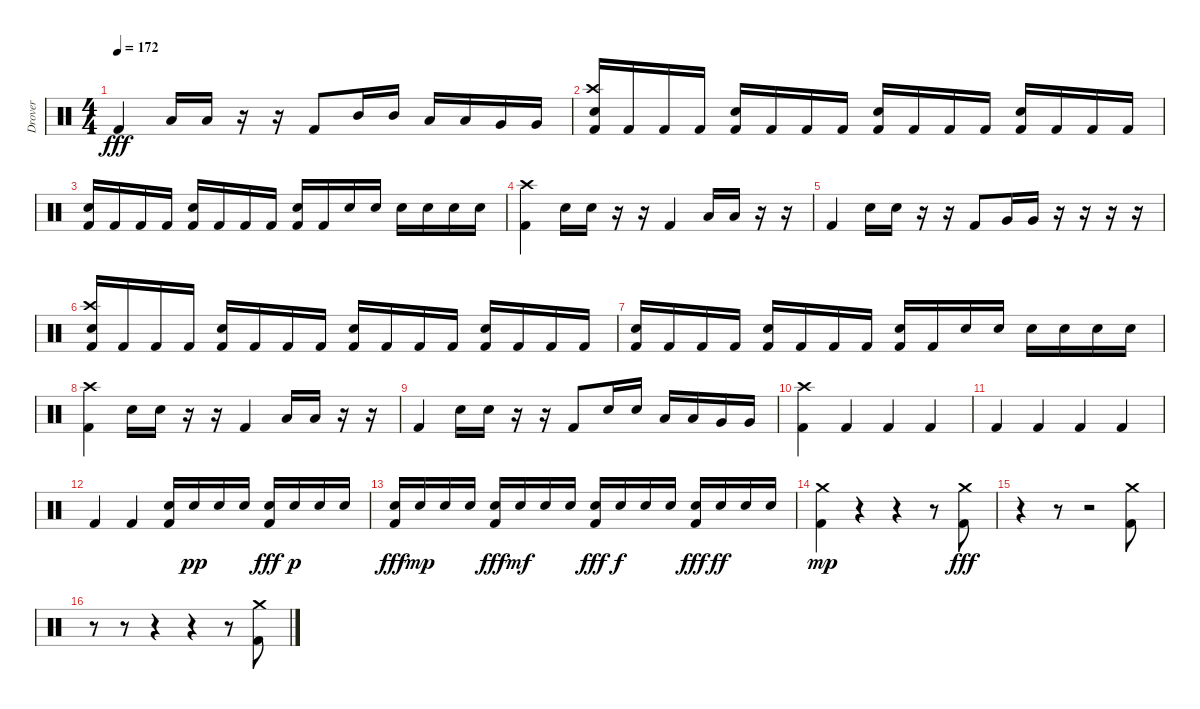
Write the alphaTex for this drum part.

\track ("Drover" "Drover") {instrument percussion}
\staff {score}
\articulation defaults
\ts (4 4)
\tempo 172
\clef neutral
\ks c "Kick (hit) 2".4{dy fff} "Low Tom (hit)".16 "Low Tom (hit)".16
r.16 r.16 "Kick (hit) 2".8 "Mid Tom (hit)".16 "Mid Tom (hit)".16 "Low Tom (hit)".16 "Low Tom (hit)".16 "Very Low Tom (hit)".16 "Very Low Tom (hit)".16 |
("Crash high (hit)" "Electric Snare (hit)" "Kick (hit) 2").16 "Kick (hit) 2".16 "Kick (hit) 2".16 "Kick (hit) 2".16 ("Electric Snare (hit)" "Kick (hit) 2").16 "Kick (hit) 2".16 "Kick (hit) 2".16 "Kick (hit) 2".16 ("Electric Snare (hit)" "Kick (hit) 2").16 "Kick (hit) 2".16 "Kick (hit) 2".16 "Kick (hit) 2".16 ("Electric Snare (hit)" "Kick (hit) 2").16 "Kick (hit) 2".16 "Kick (hit) 2".16 "Kick (hit) 2".16 |
("Electric Snare (hit)" "Kick (hit) 2").16 "Kick (hit) 2".16 "Kick (hit) 2".16 "Kick (hit) 2".16 ("Electric Snare (hit)" "Kick (hit) 2").16 "Kick (hit) 2".16 "Kick (hit) 2".16 "Kick (hit) 2".16 ("Electric Snare (hit)" "Kick (hit) 2").16 "Kick (hit) 2".16 "Electric Snare (hit)".16 "Electric Snare (hit)".16 "Electric Snare (hit)".16 "Electric Snare (hit)".16 "Electric Snare (hit)".16 "Electric Snare (hit)".16 |
("Crash high (hit)" "Kick (hit) 2").4 "Electric Snare (hit)".16 "Electric Snare (hit)".16 r.16 r.16 "Kick (hit) 2".4 "Low Tom (hit)".16 "Low Tom (hit)".16 r.16 r.16 |
"Kick (hit) 2".4 "Electric Snare (hit)".16 "Electric Snare (hit)".16 r.16 r.16 "Kick (hit) 2".8 "Very Low Tom (hit)".16 "Very Low Tom (hit)".16 r.16 r.16 r.16 r.16 |
("Crash high (hit)" "Electric Snare (hit)" "Kick (hit) 2").16 "Kick (hit) 2".16 "Kick (hit) 2".16 "Kick (hit) 2".16 ("Electric Snare (hit)" "Kick (hit) 2").16 "Kick (hit) 2".16 "Kick (hit) 2".16 "Kick (hit) 2".16 ("Electric Snare (hit)" "Kick (hit) 2").16 "Kick (hit) 2".16 "Kick (hit) 2".16 "Kick (hit) 2".16 ("Electric Snare (hit)" "Kick (hit) 2").16 "Kick (hit) 2".16 "Kick (hit) 2".16 "Kick (hit) 2".16 |
("Electric Snare (hit)" "Kick (hit) 2").16 "Kick (hit) 2".16 "Kick (hit) 2".16 "Kick (hit) 2".16 ("Electric Snare (hit)" "Kick (hit) 2").16 "Kick (hit) 2".16 "Kick (hit) 2".16 "Kick (hit) 2".16 ("Electric Snare (hit)" "Kick (hit) 2").16 "Kick (hit) 2".16 "Electric Snare (hit)".16 "Electric Snare (hit)".16 "Electric Snare (hit)".16 "Electric Snare (hit)".16 "Electric Snare (hit)".16 "Electric Snare (hit)".16 |
("Crash high (hit)" "Kick (hit) 2").4 "Electric Snare (hit)".16 "Electric Snare (hit)".16 r.16 r.16 "Kick (hit) 2".4 "Low Tom (hit)".16 "Low Tom (hit)".16 r.16 r.16 |
"Kick (hit) 2".4 "Electric Snare (hit)".16 "Electric Snare (hit)".16 r.16 r.16 "Kick (hit) 2".8 "Electric Snare (hit)".16 "Electric Snare (hit)".16 "Low Tom (hit)".16 "Low Tom (hit)".16 "Very Low Tom (hit)".16 "Very Low Tom (hit)".16 |
("Crash high (hit)" "Kick (hit) 2").4 "Kick (hit) 2".4 "Kick (hit) 2".4 "Kick (hit) 2".4 |
"Kick (hit) 2".4 "Kick (hit) 2".4 "Kick (hit) 2".4 "Kick (hit) 2".4 |
"Kick (hit) 2".4 "Kick (hit) 2".4 ("Electric Snare (hit)" "Kick (hit) 2").16 "Electric Snare (hit)".16{dy pp} "Electric Snare (hit)".16 "Electric Snare (hit)".16 ("Electric Snare (hit)" "Kick (hit) 2").16{dy fff} "Electric Snare (hit)".16{dy p} "Electric Snare (hit)".16 "Electric Snare (hit)".16 |
("Electric Snare (hit)" "Kick (hit) 2").16{dy fff} "Electric Snare (hit)".16{dy mp} "Electric Snare (hit)".16 "Electric Snare (hit)".16 ("Electric Snare (hit)" "Kick (hit) 2").16{dy fff} "Electric Snare (hit)".16{dy mf} "Electric Snare (hit)".16 "Electric Snare (hit)".16 ("Electric Snare (hit)" "Kick (hit) 2").16{dy fff} "Electric Snare (hit)".16{dy f} "Electric Snare (hit)".16 "Electric Snare (hit)".16 ("Electric Snare (hit)" "Kick (hit) 2").16{dy fff} "Electric Snare (hit)".16{dy ff} "Electric Snare (hit)".16 "Electric Snare (hit)".16 |
("Crash medium (hit)" "Kick (hit) 2").4{dy mp} r.4 r.4 r.8 ("Crash medium (hit)" "Kick (hit) 2").8{dy fff} |
r.4 r.8 r.2 ("Crash medium (hit)" "Kick (hit) 2").8 |
r.8 r.8 r.4 r.4 r.8 ("Crash medium (hit)" "Kick (hit) 2").8
